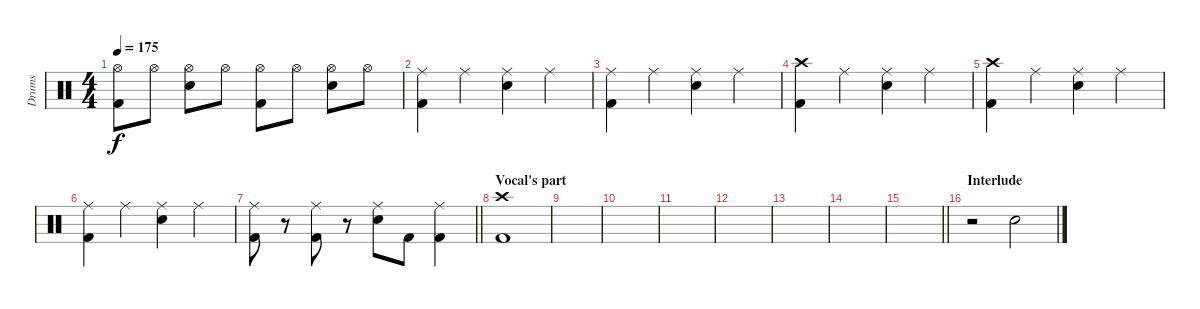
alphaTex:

\track ("Drums" "Drums") {instrument percussion}
\staff {score}
\articulation defaults
\ts (4 4)
\tempo 175
\clef neutral
\ks c
("Hi-Hat (open)" "Kick (hit) 2").8{dy f} "Hi-Hat (open)".8 ("Hi-Hat (open)" "Electric Snare (hit)").8 "Hi-Hat (open)".8 ("Hi-Hat (open)" "Kick (hit) 2").8 "Hi-Hat (open)".8 ("Hi-Hat (open)" "Electric Snare (hit)").8 "Hi-Hat (open)".8 |
("Ride (middle)" "Kick (hit) 2").4 "Ride (middle)".4 ("Ride (middle)" "Electric Snare (hit)").4 "Ride (middle)".4 |
("Ride (middle)" "Kick (hit) 2").4 "Ride (middle)".4 ("Ride (middle)" "Electric Snare (hit)").4 "Ride (middle)".4 |
("Crash high (hit)" "Kick (hit) 2").4 "Ride (middle)".4 ("Ride (middle)" "Electric Snare (hit)").4 "Ride (middle)".4 |
("Crash high (hit)" "Kick (hit) 2").4 "Ride (middle)".4 ("Ride (middle)" "Electric Snare (hit)").4 "Ride (middle)".4 |
("Ride (middle)" "Kick (hit) 2").4 "Ride (middle)".4 ("Ride (middle)" "Electric Snare (hit)").4 "Ride (middle)".4 |
\barLineRight lightlight
("Ride (middle)" "Kick (hit) 2").8 r.8 ("Ride (middle)" "Kick (hit) 2").8 r.8 ("Ride (middle)" "Electric Snare (hit)").8 "Kick (hit) 2".8 ("Ride (middle)" "Kick (hit) 2").4 |
\section ("" "Vocal's part")
("Crash high (hit)" "Kick (hit) 2").1 |
|
|
|
|
|
|
\barLineRight lightlight
|
\section ("" "Interlude")
r.2 "Snare (hit) 2".2
